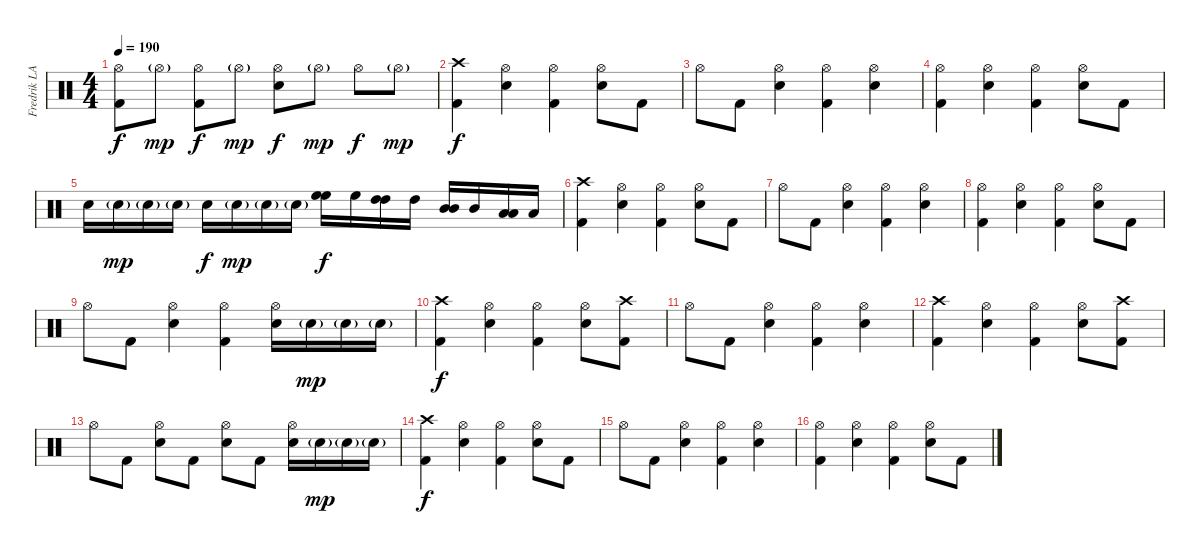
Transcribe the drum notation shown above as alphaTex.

\track ("Fredrik LARZON" "Fredrik LA") {instrument percussion}
\staff {score}
\articulation defaults
\ts (4 4)
\tempo 190
\clef neutral
\ks c
("Hi-Hat (open)" "Kick (hit) 2").8{dy f} "Hi-Hat (open)"{g}.8{dy mp} ("Hi-Hat (open)" "Kick (hit) 2").8{dy f} "Hi-Hat (open)"{g}.8{dy mp} ("Hi-Hat (open)" "Electric Snare (hit)").8{dy f} "Hi-Hat (open)"{g}.8{dy mp} "Hi-Hat (open)".8{dy f} "Hi-Hat (open)"{g}.8{dy mp} |
("Crash high (hit)" "Kick (hit) 2").4{dy f} ("Hi-Hat (open)" "Electric Snare (hit)").4 ("Hi-Hat (open)" "Kick (hit) 2").4 ("Hi-Hat (open)" "Electric Snare (hit)").8 "Kick (hit) 2".8 |
"Hi-Hat (open)".8 "Kick (hit) 2".8 ("Hi-Hat (open)" "Electric Snare (hit)").4 ("Hi-Hat (open)" "Kick (hit) 2").4 ("Hi-Hat (open)" "Electric Snare (hit)").4 |
("Hi-Hat (open)" "Kick (hit) 2").4 ("Hi-Hat (open)" "Electric Snare (hit)").4 ("Hi-Hat (open)" "Kick (hit) 2").4 ("Hi-Hat (open)" "Electric Snare (hit)").8 "Kick (hit) 2".8 |
"Electric Snare (hit)".16 "Electric Snare (hit)"{g}.16{dy mp} "Electric Snare (hit)"{g}.16 "Electric Snare (hit)"{g}.16 "Electric Snare (hit)".16{dy f} "Electric Snare (hit)"{g}.16{dy mp} "Electric Snare (hit)"{g}.16 "Electric Snare (hit)"{g}.16 ("High Floor Tom (hit)" "High Floor Tom (hit)").16{dy f} "High Floor Tom (hit)".16 ("High Tom (hit)" "High Tom (hit)").16 "High Tom (hit)".16 ("Mid Tom (hit)" "Mid Tom (hit)").16 "Mid Tom (hit)".16 ("Low Tom (hit)" "Low Tom (hit)").16 "Low Tom (hit)".16 |
("Crash high (hit)" "Kick (hit) 2").4 ("Hi-Hat (open)" "Electric Snare (hit)").4 ("Hi-Hat (open)" "Kick (hit) 2").4 ("Hi-Hat (open)" "Electric Snare (hit)").8 "Kick (hit) 2".8 |
"Hi-Hat (open)".8 "Kick (hit) 2".8 ("Hi-Hat (open)" "Electric Snare (hit)").4 ("Hi-Hat (open)" "Kick (hit) 2").4 ("Hi-Hat (open)" "Electric Snare (hit)").4 |
("Hi-Hat (open)" "Kick (hit) 2").4 ("Hi-Hat (open)" "Electric Snare (hit)").4 ("Hi-Hat (open)" "Kick (hit) 2").4 ("Hi-Hat (open)" "Electric Snare (hit)").8 "Kick (hit) 2".8 |
"Hi-Hat (open)".8 "Kick (hit) 2".8 ("Hi-Hat (open)" "Electric Snare (hit)").4 ("Hi-Hat (open)" "Kick (hit) 2").4 ("Hi-Hat (open)" "Electric Snare (hit)").16 "Electric Snare (hit)"{g}.16{dy mp} "Electric Snare (hit)"{g}.16 "Electric Snare (hit)"{g}.16 |
("Crash high (hit)" "Kick (hit) 2").4{dy f} ("Hi-Hat (open)" "Electric Snare (hit)").4 ("Hi-Hat (open)" "Kick (hit) 2").4 ("Hi-Hat (open)" "Electric Snare (hit)").8 ("Crash high (hit)" "Kick (hit) 2").8 |
"Hi-Hat (open)".8 "Kick (hit) 2".8 ("Hi-Hat (open)" "Electric Snare (hit)").4 ("Hi-Hat (open)" "Kick (hit) 2").4 ("Hi-Hat (open)" "Electric Snare (hit)").4 |
("Crash high (hit)" "Kick (hit) 2").4 ("Hi-Hat (open)" "Electric Snare (hit)").4 ("Hi-Hat (open)" "Kick (hit) 2").4 ("Hi-Hat (open)" "Electric Snare (hit)").8 ("Crash high (hit)" "Kick (hit) 2").8 |
"Hi-Hat (open)".8 "Kick (hit) 2".8 ("Hi-Hat (open)" "Electric Snare (hit)").8 "Kick (hit) 2".8 ("Hi-Hat (open)" "Electric Snare (hit)").8 "Kick (hit) 2".8 ("Hi-Hat (open)" "Electric Snare (hit)").16 "Electric Snare (hit)"{g}.16{dy mp} "Electric Snare (hit)"{g}.16 "Electric Snare (hit)"{g}.16 |
("Crash high (hit)" "Kick (hit) 2").4{dy f} ("Hi-Hat (open)" "Electric Snare (hit)").4 ("Hi-Hat (open)" "Kick (hit) 2").4 ("Hi-Hat (open)" "Electric Snare (hit)").8 "Kick (hit) 2".8 |
"Hi-Hat (open)".8 "Kick (hit) 2".8 ("Hi-Hat (open)" "Electric Snare (hit)").4 ("Hi-Hat (open)" "Kick (hit) 2").4 ("Hi-Hat (open)" "Electric Snare (hit)").4 |
("Hi-Hat (open)" "Kick (hit) 2").4 ("Hi-Hat (open)" "Electric Snare (hit)").4 ("Hi-Hat (open)" "Kick (hit) 2").4 ("Hi-Hat (open)" "Electric Snare (hit)").8 "Kick (hit) 2".8
